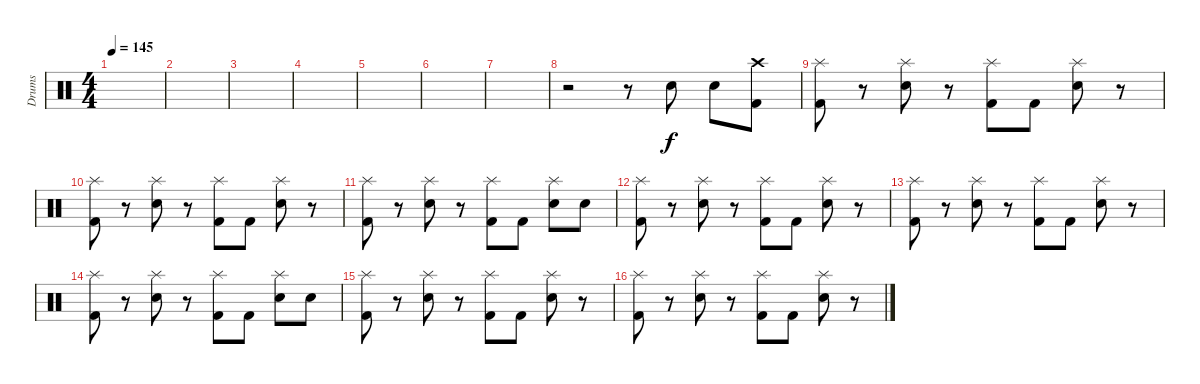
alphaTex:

\track ("Drums" "Drums") {instrument percussion}
\staff {score}
\articulation defaults
\ts (4 4)
\tempo 145
\clef neutral
\ks c
|
|
|
|
|
|
|
r.2 r.8 "Electric Snare (hit)".8 "Electric Snare (hit)".8 ("Crash high (hit)" "Kick (hit) 2").8 |
("Splash (hit)" "Kick (hit) 2").8 r.8 ("Splash (hit)" "Electric Snare (hit)").8 r.8 ("Splash (hit)" "Kick (hit) 2").8 "Kick (hit) 2".8 ("Splash (hit)" "Electric Snare (hit)").8 r.8 |
("Splash (hit)" "Kick (hit) 2").8 r.8 ("Splash (hit)" "Electric Snare (hit)").8 r.8 ("Splash (hit)" "Kick (hit) 2").8 "Kick (hit) 2".8 ("Splash (hit)" "Electric Snare (hit)").8 r.8 |
("Splash (hit)" "Kick (hit) 2").8 r.8 ("Splash (hit)" "Electric Snare (hit)").8 r.8 ("Splash (hit)" "Kick (hit) 2").8 "Kick (hit) 2".8 ("Splash (hit)" "Electric Snare (hit)").8 "Electric Snare (hit)".8 |
("Splash (hit)" "Kick (hit) 2").8 r.8 ("Splash (hit)" "Electric Snare (hit)").8 r.8 ("Splash (hit)" "Kick (hit) 2").8 "Kick (hit) 2".8 ("Splash (hit)" "Electric Snare (hit)").8 r.8 |
("Splash (hit)" "Kick (hit) 2").8 r.8 ("Splash (hit)" "Electric Snare (hit)").8 r.8 ("Splash (hit)" "Kick (hit) 2").8 "Kick (hit) 2".8 ("Splash (hit)" "Electric Snare (hit)").8 r.8 |
("Splash (hit)" "Kick (hit) 2").8 r.8 ("Splash (hit)" "Electric Snare (hit)").8 r.8 ("Splash (hit)" "Kick (hit) 2").8 "Kick (hit) 2".8 ("Splash (hit)" "Electric Snare (hit)").8 "Electric Snare (hit)".8 |
("Splash (hit)" "Kick (hit) 2").8 r.8 ("Splash (hit)" "Electric Snare (hit)").8 r.8 ("Splash (hit)" "Kick (hit) 2").8 "Kick (hit) 2".8 ("Splash (hit)" "Electric Snare (hit)").8 r.8 |
("Splash (hit)" "Kick (hit) 2").8 r.8 ("Splash (hit)" "Electric Snare (hit)").8 r.8 ("Splash (hit)" "Kick (hit) 2").8 "Kick (hit) 2".8 ("Splash (hit)" "Electric Snare (hit)").8 r.8
